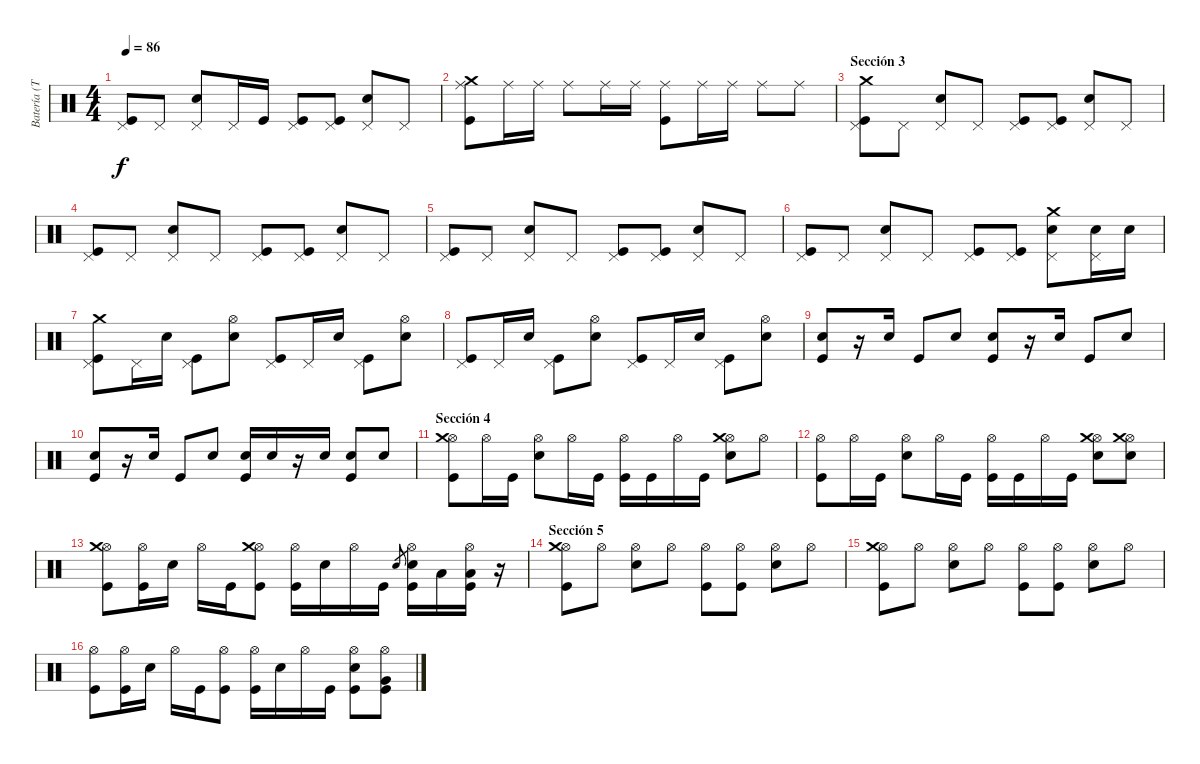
\track ("Batería (Toño)" "Batería (T") {instrument percussion}
\staff {score}
\articulation defaults
\ts (4 4)
\tempo 86
\clef neutral
\ks c
("Pedal Hi-Hat (hit)" "Kick (hit)").8{dy f} "Pedal Hi-Hat (hit)".8 ("Pedal Hi-Hat (hit)" "Electric Snare (hit)").8 "Pedal Hi-Hat (hit)".16 "Kick (hit)".16 ("Pedal Hi-Hat (hit)" "Kick (hit)").8 ("Pedal Hi-Hat (hit)" "Kick (hit)").8 ("Pedal Hi-Hat (hit)" "Electric Snare (hit)").8 "Pedal Hi-Hat (hit)".8 |
("Ride (middle)" "Crash medium (hit)" "Kick (hit)").8 "Ride (middle)".16 "Ride (middle)".16 "Ride (middle)".8 "Ride (middle)".16 "Ride (middle)".16 ("Ride (middle)" "Kick (hit)").8 "Ride (middle)".16 "Ride (middle)".16 "Ride (middle)".8 "Ride (middle)".8 |
\section ("" "Sección 3")
("Pedal Hi-Hat (hit)" "Crash medium (hit)" "Kick (hit)").8 "Pedal Hi-Hat (hit)".8 ("Pedal Hi-Hat (hit)" "Electric Snare (hit)").8 "Pedal Hi-Hat (hit)".8 ("Pedal Hi-Hat (hit)" "Kick (hit)").8 ("Pedal Hi-Hat (hit)" "Kick (hit)").8 ("Pedal Hi-Hat (hit)" "Electric Snare (hit)").8 "Pedal Hi-Hat (hit)".8 |
("Pedal Hi-Hat (hit)" "Kick (hit)").8 "Pedal Hi-Hat (hit)".8 ("Pedal Hi-Hat (hit)" "Electric Snare (hit)").8 "Pedal Hi-Hat (hit)".8 ("Pedal Hi-Hat (hit)" "Kick (hit)").8 ("Pedal Hi-Hat (hit)" "Kick (hit)").8 ("Pedal Hi-Hat (hit)" "Electric Snare (hit)").8 "Pedal Hi-Hat (hit)".8 |
("Pedal Hi-Hat (hit)" "Kick (hit)").8 "Pedal Hi-Hat (hit)".8 ("Pedal Hi-Hat (hit)" "Electric Snare (hit)").8 "Pedal Hi-Hat (hit)".8 ("Pedal Hi-Hat (hit)" "Kick (hit)").8 ("Pedal Hi-Hat (hit)" "Kick (hit)").8 ("Pedal Hi-Hat (hit)" "Electric Snare (hit)").8 "Pedal Hi-Hat (hit)".8 |
("Pedal Hi-Hat (hit)" "Kick (hit)").8 "Pedal Hi-Hat (hit)".8 ("Pedal Hi-Hat (hit)" "Electric Snare (hit)").8 "Pedal Hi-Hat (hit)".8 ("Pedal Hi-Hat (hit)" "Kick (hit)").8 ("Pedal Hi-Hat (hit)" "Kick (hit)").8 ("Pedal Hi-Hat (hit)" "Crash medium (hit)" "Electric Snare (hit)").8 ("Pedal Hi-Hat (hit)" "Electric Snare (hit)").16 "Electric Snare (hit)".16 |
("Pedal Hi-Hat (hit)" "Crash medium (hit)" "Kick (hit)").8 "Pedal Hi-Hat (hit)".16 "Electric Snare (hit)".16 ("Pedal Hi-Hat (hit)" "Kick (hit)").8 ("Hi-Hat (open)" "Electric Snare (hit)").8 ("Pedal Hi-Hat (hit)" "Kick (hit)").8 "Pedal Hi-Hat (hit)".16 "Electric Snare (hit)".16 ("Pedal Hi-Hat (hit)" "Kick (hit)").8 ("Hi-Hat (open)" "Electric Snare (hit)").8 |
("Pedal Hi-Hat (hit)" "Kick (hit)").8 "Pedal Hi-Hat (hit)".16 "Electric Snare (hit)".16 ("Pedal Hi-Hat (hit)" "Kick (hit)").8 ("Hi-Hat (open)" "Electric Snare (hit)").8 ("Pedal Hi-Hat (hit)" "Kick (hit)").8 "Pedal Hi-Hat (hit)".16 "Electric Snare (hit)".16 ("Pedal Hi-Hat (hit)" "Kick (hit)").8 ("Hi-Hat (open)" "Electric Snare (hit)").8 |
("Electric Snare (hit)" "Kick (hit)").8 r.16 "Electric Snare (hit)".16 "Kick (hit)".8 "Electric Snare (hit)".8 ("Electric Snare (hit)" "Kick (hit)").8 r.16 "Electric Snare (hit)".16 "Kick (hit)".8 "Electric Snare (hit)".8 |
("Electric Snare (hit)" "Kick (hit)").8 r.16 "Electric Snare (hit)".16 "Kick (hit)".8 "Electric Snare (hit)".8 ("Electric Snare (hit)" "Kick (hit)").16 "Electric Snare (hit)".16 r.16 "Electric Snare (hit)".16 ("Electric Snare (hit)" "Kick (hit)").8 "Electric Snare (hit)".8 |
\section ("" "Sección 4")
("Hi-Hat (open)" "Crash medium (hit)" "Kick (hit)").8 "Hi-Hat (open)".16 "Kick (hit)".16 ("Hi-Hat (open)" "Electric Snare (hit)").8 "Hi-Hat (open)".16 "Kick (hit)".16 ("Hi-Hat (open)" "Kick (hit)").16 "Kick (hit)".16 "Hi-Hat (open)".16 "Kick (hit)".16 ("Hi-Hat (open)" "Crash medium (hit)" "Electric Snare (hit)").8 "Hi-Hat (open)".8 |
("Hi-Hat (open)" "Kick (hit)").8 "Hi-Hat (open)".16 "Kick (hit)".16 ("Hi-Hat (open)" "Electric Snare (hit)").8 "Hi-Hat (open)".16 "Kick (hit)".16 ("Hi-Hat (open)" "Kick (hit)").16 "Kick (hit)".16 "Hi-Hat (open)".16 "Kick (hit)".16 ("Hi-Hat (open)" "Crash medium (hit)" "Electric Snare (hit)").8 ("Hi-Hat (open)" "Crash medium (hit)" "Electric Snare (hit)").8 |
("Hi-Hat (open)" "Crash medium (hit)" "Kick (hit)").8 ("Hi-Hat (open)" "Kick (hit)").16 "Electric Snare (hit)".16 "Hi-Hat (open)".16 "Kick (hit)".16 ("Hi-Hat (open)" "Crash medium (hit)" "Kick (hit)").8 ("Hi-Hat (open)" "Kick (hit)").16 "Electric Snare (hit)".16 "Hi-Hat (open)".16 "Kick (hit)".16 "Electric Snare (hit)".8{gr} ("Hi-Hat (open)" "Electric Snare (hit)" "Kick (hit)").16 "Low Tom (hit)".16 ("Hi-Hat (open)" "Low Tom (hit)" "Kick (hit)").16 r.16 |
\section ("" "Sección 5")
("Hi-Hat (open)" "Crash medium (hit)" "Kick (hit)").8 "Hi-Hat (open)".8 ("Hi-Hat (open)" "Electric Snare (hit)").8 "Hi-Hat (open)".8 ("Hi-Hat (open)" "Kick (hit)").8 ("Hi-Hat (open)" "Kick (hit)").8 ("Hi-Hat (open)" "Electric Snare (hit)").8 "Hi-Hat (open)".8 |
("Hi-Hat (open)" "Crash medium (hit)" "Kick (hit)").8 "Hi-Hat (open)".8 ("Hi-Hat (open)" "Electric Snare (hit)").8 "Hi-Hat (open)".8 ("Hi-Hat (open)" "Kick (hit)").8 ("Hi-Hat (open)" "Kick (hit)").8 ("Hi-Hat (open)" "Electric Snare (hit)").8 "Hi-Hat (open)".8 |
("Hi-Hat (open)" "Kick (hit)").8 ("Hi-Hat (open)" "Kick (hit)").16 "Electric Snare (hit)".16 "Hi-Hat (open)".16 "Kick (hit)".16 ("Hi-Hat (open)" "Kick (hit)").8 ("Hi-Hat (open)" "Kick (hit)").16 "Electric Snare (hit)".16 "Hi-Hat (open)".16 "Kick (hit)".16 ("Hi-Hat (open)" "Electric Snare (hit)" "Kick (hit)").8 ("Hi-Hat (open)" "Very Low Tom (hit)" "Kick (hit)").8
